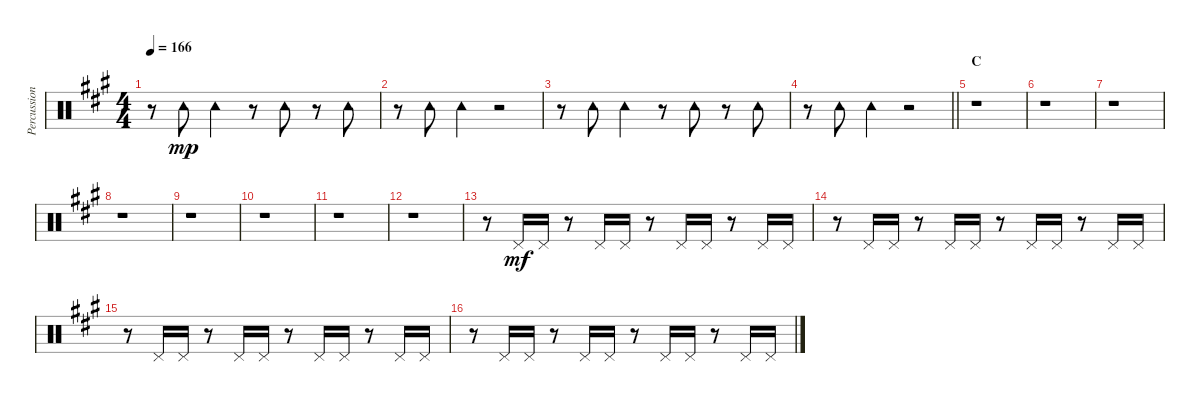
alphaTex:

\track ("Percussion I" "Percussion") {instrument percussion}
\staff {score}
\articulation defaults
\ts (4 4)
\tempo 166
\clef neutral
\ks a
r.8{dy mp} "Tambourine (hit)".8 "Tambourine (hit)".4 r.8 "Tambourine (hit)".8 r.8 "Tambourine (hit)".8 |
r.8 "Tambourine (hit)".8 "Tambourine (hit)".4 r.2 |
r.8 "Tambourine (hit)".8 "Tambourine (hit)".4 r.8 "Tambourine (hit)".8 r.8 "Tambourine (hit)".8 |
\barLineRight lightlight
r.8 "Tambourine (hit)".8 "Tambourine (hit)".4 r.2 |
\section ("" "C")
r.1 |
r.1 |
r.1 |
r.1 |
r.1 |
r.1 |
r.1 |
r.1 |
r.8 "Pedal Hi-Hat (hit)".16{dy mf} "Pedal Hi-Hat (hit)".16 r.8 "Pedal Hi-Hat (hit)".16 "Pedal Hi-Hat (hit)".16 r.8 "Pedal Hi-Hat (hit)".16 "Pedal Hi-Hat (hit)".16 r.8 "Pedal Hi-Hat (hit)".16 "Pedal Hi-Hat (hit)".16 |
r.8 "Pedal Hi-Hat (hit)".16 "Pedal Hi-Hat (hit)".16 r.8 "Pedal Hi-Hat (hit)".16 "Pedal Hi-Hat (hit)".16 r.8 "Pedal Hi-Hat (hit)".16 "Pedal Hi-Hat (hit)".16 r.8 "Pedal Hi-Hat (hit)".16 "Pedal Hi-Hat (hit)".16 |
r.8 "Pedal Hi-Hat (hit)".16 "Pedal Hi-Hat (hit)".16 r.8 "Pedal Hi-Hat (hit)".16 "Pedal Hi-Hat (hit)".16 r.8 "Pedal Hi-Hat (hit)".16 "Pedal Hi-Hat (hit)".16 r.8 "Pedal Hi-Hat (hit)".16 "Pedal Hi-Hat (hit)".16 |
r.8 "Pedal Hi-Hat (hit)".16 "Pedal Hi-Hat (hit)".16 r.8 "Pedal Hi-Hat (hit)".16 "Pedal Hi-Hat (hit)".16 r.8 "Pedal Hi-Hat (hit)".16 "Pedal Hi-Hat (hit)".16 r.8 "Pedal Hi-Hat (hit)".16 "Pedal Hi-Hat (hit)".16
